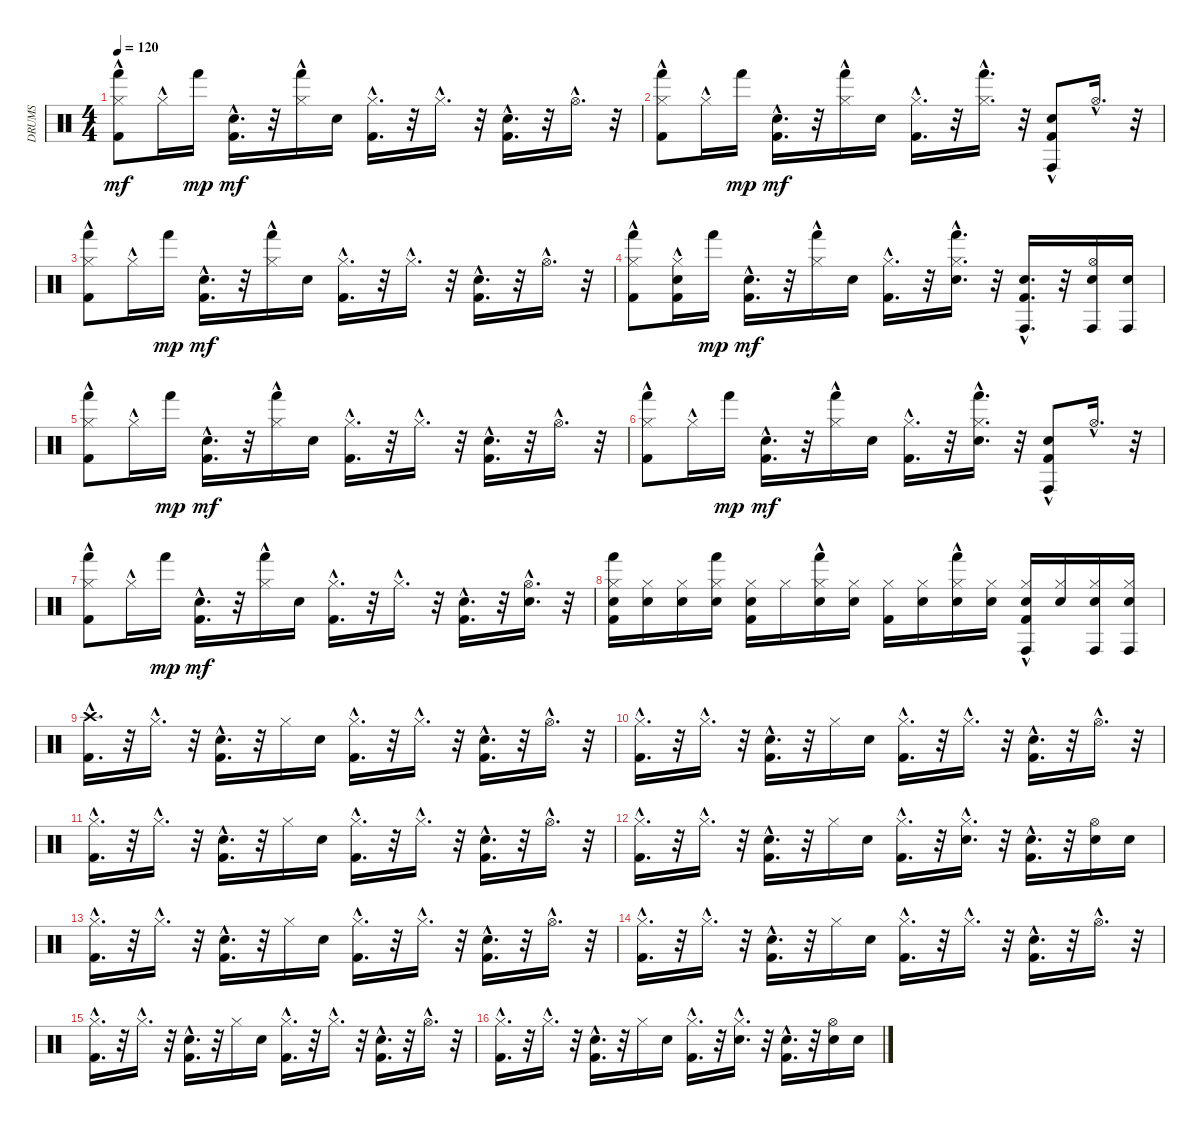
\track ("DRUMS" "DRUMS") {instrument percussion}
\staff {score}
\articulation defaults
\ts (4 4)
\tempo 120
\clef neutral
\ks c
("Hand (hit)" "Kick (hit) 2"{hac} "Hi-Hat (closed)"{hac}).8{dy mf} "Hi-Hat (closed)"{hac}.16 "Hand (hit)".16{dy mp} ("Kick (hit) 2"{hac} "Electric Snare (hit)"{hac}).16{d dy mf} r.32 ("Hand (hit)"{hac} "Hi-Hat (closed)").16 "Electric Snare (hit)".16 ("Kick (hit) 2"{hac} "Hi-Hat (closed)"{hac}).16{d} r.32 "Hi-Hat (closed)"{hac}.16{d} r.32 ("Kick (hit) 2"{hac} "Electric Snare (hit)"{hac}).16{d} r.32 "Hi-Hat (open)"{hac}.16{d} r.32 |
("Hand (hit)" "Hi-Hat (closed)"{hac} "Kick (hit) 2"{hac}).8 "Hi-Hat (closed)"{hac}.16 "Hand (hit)".16{dy mp} ("Electric Snare (hit)"{hac} "Kick (hit) 2"{hac}).16{d dy mf} r.32 ("Hand (hit)"{hac} "Hi-Hat (closed)").16 "Electric Snare (hit)".16 ("Hi-Hat (closed)"{hac} "Kick (hit) 2"{hac}).16{d} r.32 ("Hand (hit)"{hac} "Hi-Hat (closed)"{hac}).16{d} r.32 ("Conga high (hit)"{hac} "Electric Snare (hit)"{hac} "Kick (hit) 2"{hac}).8 "Hi-Hat (open)"{hac}.16{d} r.32 |
("Hand (hit)" "Hi-Hat (closed)"{hac} "Kick (hit) 2"{hac}).8 "Hi-Hat (closed)"{hac}.16 "Hand (hit)".16{dy mp} ("Electric Snare (hit)"{hac} "Kick (hit) 2"{hac}).16{d dy mf} r.32 ("Hand (hit)"{hac} "Hi-Hat (closed)").16 "Electric Snare (hit)".16 ("Hi-Hat (closed)"{hac} "Kick (hit) 2"{hac}).16{d} r.32 "Hi-Hat (closed)"{hac}.16{d} r.32 ("Electric Snare (hit)"{hac} "Kick (hit) 2"{hac}).16{d} r.32 "Hi-Hat (open)"{hac}.16{d} r.32 |
("Hand (hit)" "Hi-Hat (closed)"{hac} "Kick (hit) 2"{hac}).8 ("Kick (hit) 2"{hac} "Electric Snare (hit)"{hac} "Hi-Hat (closed)"{hac}).16 "Hand (hit)".16{dy mp} ("Electric Snare (hit)"{hac} "Kick (hit) 2"{hac}).16{d dy mf} r.32 ("Hand (hit)"{hac} "Hi-Hat (closed)").16 "Electric Snare (hit)".16 ("Hi-Hat (closed)"{hac} "Kick (hit) 2"{hac}).16{d} r.32 ("Hand (hit)"{hac} "Hi-Hat (closed)"{hac} "Electric Snare (hit)"{hac}).16{d} r.32 ("Conga high (hit)"{hac} "Electric Snare (hit)"{hac} "Kick (hit) 2"{hac}).16{d} r.32 ("Conga high (hit)" "Hi-Hat (open)" "Electric Snare (hit)").16 ("Conga high (hit)" "Electric Snare (hit)").16 |
("Hand (hit)" "Hi-Hat (closed)"{hac} "Kick (hit) 2"{hac}).8 "Hi-Hat (closed)"{hac}.16 "Hand (hit)".16{dy mp} ("Electric Snare (hit)"{hac} "Kick (hit) 2"{hac}).16{d dy mf} r.32 ("Hand (hit)"{hac} "Hi-Hat (closed)").16 "Electric Snare (hit)".16 ("Hi-Hat (closed)"{hac} "Kick (hit) 2"{hac}).16{d} r.32 "Hi-Hat (closed)"{hac}.16{d} r.32 ("Electric Snare (hit)"{hac} "Kick (hit) 2"{hac}).16{d} r.32 "Hi-Hat (open)"{hac}.16{d} r.32 |
("Hand (hit)" "Kick (hit) 2"{hac} "Hi-Hat (closed)"{hac}).8 "Hi-Hat (closed)"{hac}.16 "Hand (hit)".16{dy mp} ("Kick (hit) 2"{hac} "Electric Snare (hit)"{hac}).16{d dy mf} r.32 ("Hand (hit)"{hac} "Hi-Hat (closed)").16 "Electric Snare (hit)".16 ("Kick (hit) 2"{hac} "Hi-Hat (closed)"{hac}).16{d} r.32 ("Electric Snare (hit)"{hac} "Hand (hit)"{hac} "Hi-Hat (closed)"{hac}).16{d} r.32 ("Conga high (hit)"{hac} "Kick (hit) 2"{hac} "Electric Snare (hit)"{hac}).8 "Hi-Hat (open)"{hac}.16{d} r.32 |
("Hand (hit)" "Kick (hit) 2"{hac} "Hi-Hat (closed)"{hac}).8 "Hi-Hat (closed)"{hac}.16 "Hand (hit)".16{dy mp} ("Kick (hit) 2"{hac} "Electric Snare (hit)"{hac}).16{d dy mf} r.32 ("Hand (hit)"{hac} "Hi-Hat (closed)").16 "Electric Snare (hit)".16 ("Kick (hit) 2"{hac} "Hi-Hat (closed)"{hac}).16{d} r.32 "Hi-Hat (closed)"{hac}.16{d} r.32 ("Kick (hit) 2"{hac} "Electric Snare (hit)"{hac}).16{d} r.32 ("Electric Snare (hit)"{hac} "Hi-Hat (open)"{hac}).16{d} r.32 |
("Hand (hit)" "Electric Snare (hit)" "Kick (hit) 2" "Hi-Hat (closed)").16 ("Electric Snare (hit)" "Hi-Hat (closed)").16 ("Hi-Hat (closed)" "Electric Snare (hit)").16 ("Hand (hit)" "Electric Snare (hit)" "Hi-Hat (closed)").16 ("Hi-Hat (closed)" "Kick (hit) 2" "Electric Snare (hit)").16 "Hi-Hat (closed)".16 ("Hand (hit)"{hac} "Electric Snare (hit)" "Hi-Hat (closed)").16 ("Hi-Hat (closed)" "Electric Snare (hit)").16 ("Hi-Hat (closed)" "Kick (hit) 2").16 ("Hi-Hat (closed)" "Electric Snare (hit)").16 ("Hand (hit)"{hac} "Hi-Hat (closed)" "Electric Snare (hit)").16 ("Electric Snare (hit)" "Hi-Hat (closed)").16 ("Conga high (hit)"{hac} "Hi-Hat (closed)" "Kick (hit) 2" "Electric Snare (hit)").16 ("Hi-Hat (closed)" "Electric Snare (hit)").16 ("Conga high (hit)" "Electric Snare (hit)" "Hi-Hat (closed)").16 ("Conga high (hit)" "Electric Snare (hit)" "Hi-Hat (closed)").16 |
("Crash high (hit)"{hac} "Kick (hit) 2"{hac}).16{d} r.32 "Hi-Hat (closed)"{hac}.16{d} r.32 ("Electric Snare (hit)"{hac} "Kick (hit) 2"{hac}).16{d} r.32 "Hi-Hat (closed)".16 "Electric Snare (hit)".16 ("Hi-Hat (closed)"{hac} "Kick (hit) 2"{hac}).16{d} r.32 "Hi-Hat (closed)"{hac}.16{d} r.32 ("Electric Snare (hit)"{hac} "Kick (hit) 2"{hac}).16{d} r.32 "Hi-Hat (open)"{hac}.16{d} r.32 |
("Kick (hit) 2"{hac} "Hi-Hat (closed)"{hac}).16{d} r.32 "Hi-Hat (closed)"{hac}.16{d} r.32 ("Kick (hit) 2"{hac} "Electric Snare (hit)"{hac}).16{d} r.32 "Hi-Hat (closed)".16 "Electric Snare (hit)".16 ("Kick (hit) 2"{hac} "Hi-Hat (closed)"{hac}).16{d} r.32 "Hi-Hat (closed)"{hac}.16{d} r.32 ("Kick (hit) 2"{hac} "Electric Snare (hit)"{hac}).16{d} r.32 "Hi-Hat (open)"{hac}.16{d} r.32 |
("Kick (hit) 2"{hac} "Hi-Hat (closed)"{hac}).16{d} r.32 "Hi-Hat (closed)"{hac}.16{d} r.32 ("Kick (hit) 2"{hac} "Electric Snare (hit)"{hac}).16{d} r.32 "Hi-Hat (closed)".16 "Electric Snare (hit)".16 ("Kick (hit) 2"{hac} "Hi-Hat (closed)"{hac}).16{d} r.32 "Hi-Hat (closed)"{hac}.16{d} r.32 ("Kick (hit) 2"{hac} "Electric Snare (hit)"{hac}).16{d} r.32 "Hi-Hat (open)"{hac}.16{d} r.32 |
("Kick (hit) 2"{hac} "Hi-Hat (closed)"{hac}).16{d} r.32 "Hi-Hat (closed)"{hac}.16{d} r.32 ("Kick (hit) 2"{hac} "Electric Snare (hit)"{hac}).16{d} r.32 "Hi-Hat (closed)".16 "Electric Snare (hit)".16 ("Kick (hit) 2"{hac} "Hi-Hat (closed)"{hac}).16{d} r.32 ("Electric Snare (hit)"{hac} "Hi-Hat (closed)"{hac}).16{d} r.32 ("Kick (hit) 2"{hac} "Electric Snare (hit)"{hac}).16{d} r.32 ("Electric Snare (hit)" "Hi-Hat (open)").16 "Electric Snare (hit)".16 |
("Kick (hit) 2"{hac} "Hi-Hat (closed)"{hac}).16{d} r.32 "Hi-Hat (closed)"{hac}.16{d} r.32 ("Kick (hit) 2"{hac} "Electric Snare (hit)"{hac}).16{d} r.32 "Hi-Hat (closed)".16 "Electric Snare (hit)".16 ("Kick (hit) 2"{hac} "Hi-Hat (closed)"{hac}).16{d} r.32 "Hi-Hat (closed)"{hac}.16{d} r.32 ("Kick (hit) 2"{hac} "Electric Snare (hit)"{hac}).16{d} r.32 "Hi-Hat (open)"{hac}.16{d} r.32 |
("Hi-Hat (closed)"{hac} "Kick (hit) 2"{hac}).16{d} r.32 "Hi-Hat (closed)"{hac}.16{d} r.32 ("Electric Snare (hit)"{hac} "Kick (hit) 2"{hac}).16{d} r.32 "Hi-Hat (closed)".16 "Electric Snare (hit)".16 ("Hi-Hat (closed)"{hac} "Kick (hit) 2"{hac}).16{d} r.32 "Hi-Hat (closed)"{hac}.16{d} r.32 ("Electric Snare (hit)"{hac} "Kick (hit) 2"{hac}).16{d} r.32 "Hi-Hat (open)"{hac}.16{d} r.32 |
("Hi-Hat (closed)"{hac} "Kick (hit) 2"{hac}).16{d} r.32 "Hi-Hat (closed)"{hac}.16{d} r.32 ("Electric Snare (hit)"{hac} "Kick (hit) 2"{hac}).16{d} r.32 "Hi-Hat (closed)".16 "Electric Snare (hit)".16 ("Hi-Hat (closed)"{hac} "Kick (hit) 2"{hac}).16{d} r.32 "Hi-Hat (closed)"{hac}.16{d} r.32 ("Electric Snare (hit)"{hac} "Kick (hit) 2"{hac}).16{d} r.32 "Hi-Hat (open)"{hac}.16{d} r.32 |
("Hi-Hat (closed)"{hac} "Kick (hit) 2"{hac}).16{d} r.32 "Hi-Hat (closed)"{hac}.16{d} r.32 ("Electric Snare (hit)"{hac} "Kick (hit) 2"{hac}).16{d} r.32 "Hi-Hat (closed)".16 "Electric Snare (hit)".16 ("Hi-Hat (closed)"{hac} "Kick (hit) 2"{hac}).16{d} r.32 ("Hi-Hat (closed)"{hac} "Electric Snare (hit)"{hac}).16{d} r.32 ("Electric Snare (hit)"{hac} "Kick (hit) 2"{hac}).16{d} r.32 ("Hi-Hat (open)" "Electric Snare (hit)").16 "Electric Snare (hit)".16
